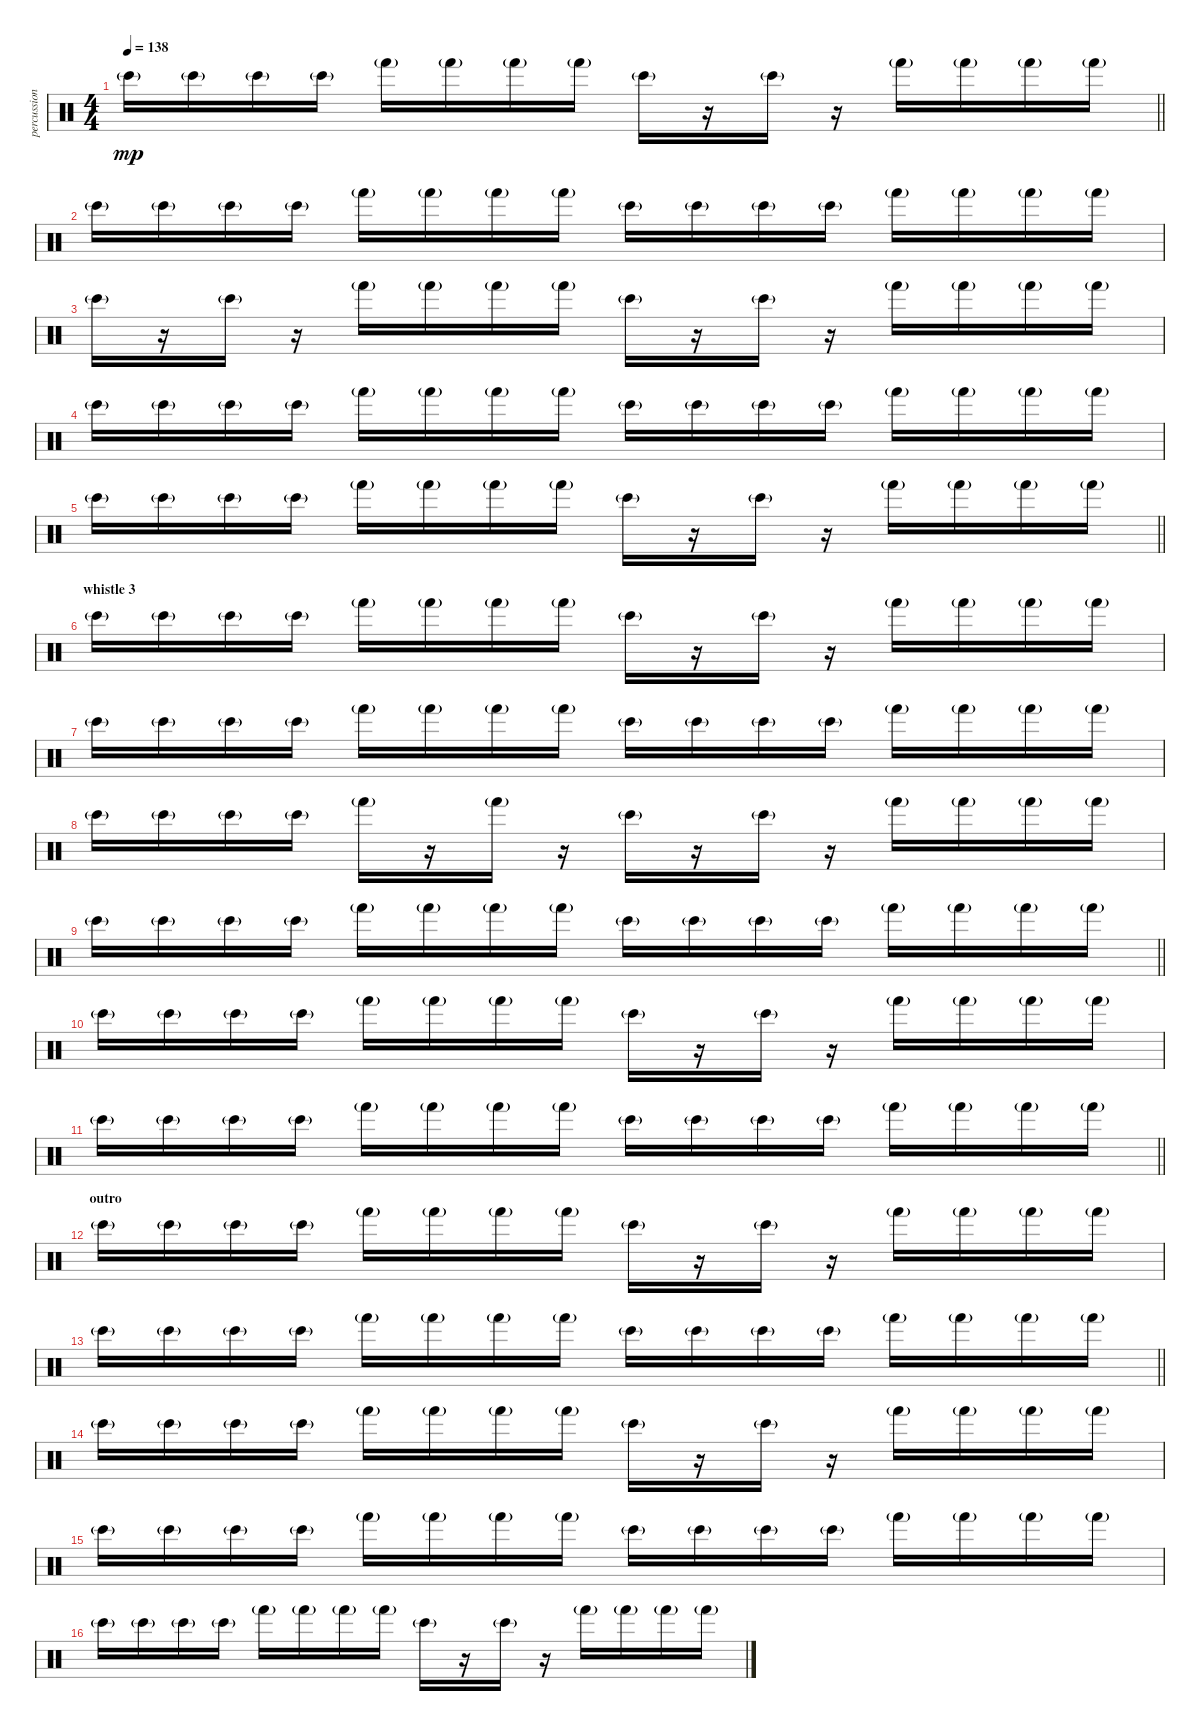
\track ("percussion" "percussion") {instrument percussion}
\staff {score}
\articulation defaults
\ts (4 4)
\tempo 138
\clef neutral
\barLineRight lightlight
\ks c "Bongo High (hit)"{g}.16{dy mp} "Bongo High (hit)"{g}.16 "Bongo High (hit)"{g}.16 "Bongo High (hit)"{g}.16 "Hand (hit)"{g}.16 "Hand (hit)"{g}.16 "Hand (hit)"{g}.16 "Hand (hit)"{g}.16 "Bongo High (hit)"{g}.16
r.16 "Bongo High (hit)"{g}.16 r.16 "Hand (hit)"{g}.16 "Hand (hit)"{g}.16 "Hand (hit)"{g}.16 "Hand (hit)"{g}.16 |
"Bongo High (hit)"{g}.16 "Bongo High (hit)"{g}.16 "Bongo High (hit)"{g}.16 "Bongo High (hit)"{g}.16 "Hand (hit)"{g}.16 "Hand (hit)"{g}.16 "Hand (hit)"{g}.16 "Hand (hit)"{g}.16 "Bongo High (hit)"{g}.16 "Bongo High (hit)"{g}.16 "Bongo High (hit)"{g}.16 "Bongo High (hit)"{g}.16 "Hand (hit)"{g}.16 "Hand (hit)"{g}.16 "Hand (hit)"{g}.16 "Hand (hit)"{g}.16 |
"Bongo High (hit)"{g}.16 r.16 "Bongo High (hit)"{g}.16 r.16 "Hand (hit)"{g}.16 "Hand (hit)"{g}.16 "Hand (hit)"{g}.16 "Hand (hit)"{g}.16 "Bongo High (hit)"{g}.16 r.16 "Bongo High (hit)"{g}.16 r.16 "Hand (hit)"{g}.16 "Hand (hit)"{g}.16 "Hand (hit)"{g}.16 "Hand (hit)"{g}.16 |
"Bongo High (hit)"{g}.16 "Bongo High (hit)"{g}.16 "Bongo High (hit)"{g}.16 "Bongo High (hit)"{g}.16 "Hand (hit)"{g}.16 "Hand (hit)"{g}.16 "Hand (hit)"{g}.16 "Hand (hit)"{g}.16 "Bongo High (hit)"{g}.16 "Bongo High (hit)"{g}.16 "Bongo High (hit)"{g}.16 "Bongo High (hit)"{g}.16 "Hand (hit)"{g}.16 "Hand (hit)"{g}.16 "Hand (hit)"{g}.16 "Hand (hit)"{g}.16 |
\barLineRight lightlight "Bongo High (hit)"{g}.16 "Bongo High (hit)"{g}.16 "Bongo High (hit)"{g}.16 "Bongo High (hit)"{g}.16 "Hand (hit)"{g}.16 "Hand (hit)"{g}.16 "Hand (hit)"{g}.16 "Hand (hit)"{g}.16 "Bongo High (hit)"{g}.16
r.16 "Bongo High (hit)"{g}.16 r.16 "Hand (hit)"{g}.16 "Hand (hit)"{g}.16 "Hand (hit)"{g}.16 "Hand (hit)"{g}.16 |
\section ("" "whistle 3")
"Bongo High (hit)"{g}.16 "Bongo High (hit)"{g}.16 "Bongo High (hit)"{g}.16 "Bongo High (hit)"{g}.16 "Hand (hit)"{g}.16 "Hand (hit)"{g}.16 "Hand (hit)"{g}.16 "Hand (hit)"{g}.16 "Bongo High (hit)"{g}.16 r.16 "Bongo High (hit)"{g}.16 r.16 "Hand (hit)"{g}.16 "Hand (hit)"{g}.16 "Hand (hit)"{g}.16 "Hand (hit)"{g}.16 |
"Bongo High (hit)"{g}.16 "Bongo High (hit)"{g}.16 "Bongo High (hit)"{g}.16 "Bongo High (hit)"{g}.16 "Hand (hit)"{g}.16 "Hand (hit)"{g}.16 "Hand (hit)"{g}.16 "Hand (hit)"{g}.16 "Bongo High (hit)"{g}.16 "Bongo High (hit)"{g}.16 "Bongo High (hit)"{g}.16 "Bongo High (hit)"{g}.16 "Hand (hit)"{g}.16 "Hand (hit)"{g}.16 "Hand (hit)"{g}.16 "Hand (hit)"{g}.16 |
"Bongo High (hit)"{g}.16 "Bongo High (hit)"{g}.16 "Bongo High (hit)"{g}.16 "Bongo High (hit)"{g}.16 "Hand (hit)"{g}.16 r.16 "Hand (hit)"{g}.16 r.16 "Bongo High (hit)"{g}.16 r.16 "Bongo High (hit)"{g}.16 r.16 "Hand (hit)"{g}.16 "Hand (hit)"{g}.16 "Hand (hit)"{g}.16 "Hand (hit)"{g}.16 |
\barLineRight lightlight "Bongo High (hit)"{g}.16 "Bongo High (hit)"{g}.16 "Bongo High (hit)"{g}.16 "Bongo High (hit)"{g}.16 "Hand (hit)"{g}.16 "Hand (hit)"{g}.16 "Hand (hit)"{g}.16 "Hand (hit)"{g}.16 "Bongo High (hit)"{g}.16 "Bongo High (hit)"{g}.16 "Bongo High (hit)"{g}.16 "Bongo High (hit)"{g}.16 "Hand (hit)"{g}.16 "Hand (hit)"{g}.16 "Hand (hit)"{g}.16 "Hand (hit)"{g}.16
|
"Bongo High (hit)"{g}.16 "Bongo High (hit)"{g}.16 "Bongo High (hit)"{g}.16 "Bongo High (hit)"{g}.16 "Hand (hit)"{g}.16 "Hand (hit)"{g}.16 "Hand (hit)"{g}.16 "Hand (hit)"{g}.16 "Bongo High (hit)"{g}.16 r.16 "Bongo High (hit)"{g}.16 r.16 "Hand (hit)"{g}.16 "Hand (hit)"{g}.16 "Hand (hit)"{g}.16 "Hand (hit)"{g}.16 |
\barLineRight lightlight "Bongo High (hit)"{g}.16 "Bongo High (hit)"{g}.16 "Bongo High (hit)"{g}.16 "Bongo High (hit)"{g}.16 "Hand (hit)"{g}.16 "Hand (hit)"{g}.16 "Hand (hit)"{g}.16 "Hand (hit)"{g}.16 "Bongo High (hit)"{g}.16 "Bongo High (hit)"{g}.16 "Bongo High (hit)"{g}.16 "Bongo High (hit)"{g}.16 "Hand (hit)"{g}.16 "Hand (hit)"{g}.16 "Hand (hit)"{g}.16 "Hand (hit)"{g}.16
|
\section ("" "outro")
"Bongo High (hit)"{g}.16 "Bongo High (hit)"{g}.16 "Bongo High (hit)"{g}.16 "Bongo High (hit)"{g}.16 "Hand (hit)"{g}.16 "Hand (hit)"{g}.16 "Hand (hit)"{g}.16 "Hand (hit)"{g}.16 "Bongo High (hit)"{g}.16 r.16 "Bongo High (hit)"{g}.16 r.16 "Hand (hit)"{g}.16 "Hand (hit)"{g}.16 "Hand (hit)"{g}.16 "Hand (hit)"{g}.16 |
\barLineRight lightlight "Bongo High (hit)"{g}.16 "Bongo High (hit)"{g}.16 "Bongo High (hit)"{g}.16 "Bongo High (hit)"{g}.16 "Hand (hit)"{g}.16 "Hand (hit)"{g}.16 "Hand (hit)"{g}.16 "Hand (hit)"{g}.16 "Bongo High (hit)"{g}.16 "Bongo High (hit)"{g}.16 "Bongo High (hit)"{g}.16 "Bongo High (hit)"{g}.16 "Hand (hit)"{g}.16 "Hand (hit)"{g}.16 "Hand (hit)"{g}.16 "Hand (hit)"{g}.16
|
"Bongo High (hit)"{g}.16 "Bongo High (hit)"{g}.16 "Bongo High (hit)"{g}.16 "Bongo High (hit)"{g}.16 "Hand (hit)"{g}.16 "Hand (hit)"{g}.16 "Hand (hit)"{g}.16 "Hand (hit)"{g}.16 "Bongo High (hit)"{g}.16 r.16 "Bongo High (hit)"{g}.16 r.16 "Hand (hit)"{g}.16 "Hand (hit)"{g}.16 "Hand (hit)"{g}.16 "Hand (hit)"{g}.16 |
"Bongo High (hit)"{g}.16 "Bongo High (hit)"{g}.16 "Bongo High (hit)"{g}.16 "Bongo High (hit)"{g}.16 "Hand (hit)"{g}.16 "Hand (hit)"{g}.16 "Hand (hit)"{g}.16 "Hand (hit)"{g}.16 "Bongo High (hit)"{g}.16 "Bongo High (hit)"{g}.16 "Bongo High (hit)"{g}.16 "Bongo High (hit)"{g}.16 "Hand (hit)"{g}.16 "Hand (hit)"{g}.16 "Hand (hit)"{g}.16 "Hand (hit)"{g}.16 |
"Bongo High (hit)"{g}.16 "Bongo High (hit)"{g}.16 "Bongo High (hit)"{g}.16 "Bongo High (hit)"{g}.16 "Hand (hit)"{g}.16 "Hand (hit)"{g}.16 "Hand (hit)"{g}.16 "Hand (hit)"{g}.16 "Bongo High (hit)"{g}.16 r.16 "Bongo High (hit)"{g}.16 r.16 "Hand (hit)"{g}.16 "Hand (hit)"{g}.16 "Hand (hit)"{g}.16 "Hand (hit)"{g}.16
